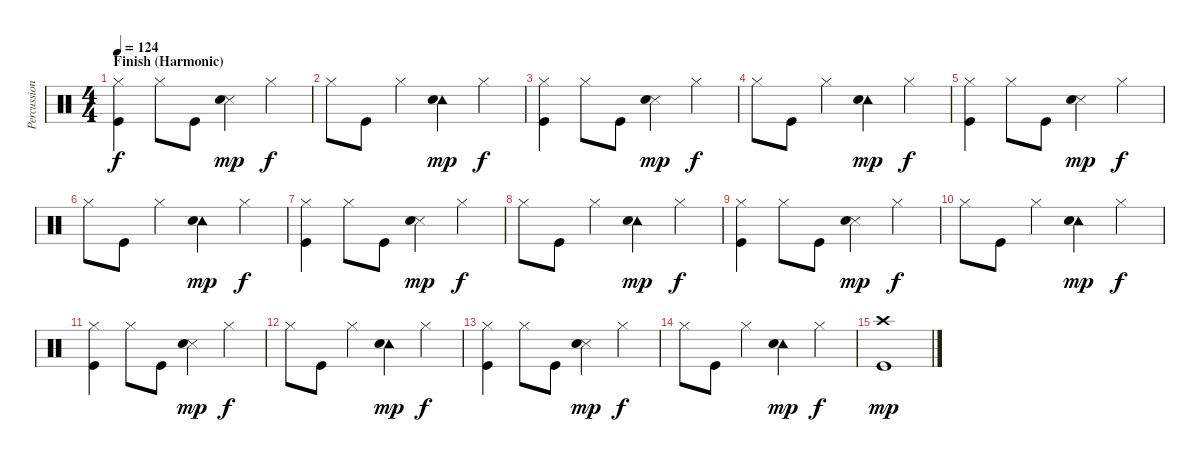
\track ("Percussion" "Percussion") {instrument percussion}
\staff {score}
\articulation defaults
\ts (4 4)
\section ("" "Finish (Harmonic)")
\tempo 124
\clef neutral
\ks c
("Hi-Hat (closed)" "Kick (hit)").4{dy f} "Hi-Hat (closed)".8 "Kick (hit)".8 ("Snare (side stick) 3" "Snare (hit) 2").4{dy mp} "Hi-Hat (closed)".4{dy f} |
"Hi-Hat (closed)".8 "Kick (hit)".8 "Hi-Hat (closed)".4 ("Tambourine (hit)" "Snare (hit) 2").4{dy mp} "Hi-Hat (closed)".4{dy f} |
("Hi-Hat (closed)" "Kick (hit)").4 "Hi-Hat (closed)".8 "Kick (hit)".8 ("Snare (side stick) 3" "Snare (hit) 2").4{dy mp} "Hi-Hat (closed)".4{dy f} |
"Hi-Hat (closed)".8 "Kick (hit)".8 "Hi-Hat (closed)".4 ("Tambourine (hit)" "Snare (hit) 2").4{dy mp} "Hi-Hat (closed)".4{dy f} |
("Hi-Hat (closed)" "Kick (hit)").4 "Hi-Hat (closed)".8 "Kick (hit)".8 ("Snare (side stick) 3" "Snare (hit) 2").4{dy mp} "Hi-Hat (closed)".4{dy f} |
"Hi-Hat (closed)".8 "Kick (hit)".8 "Hi-Hat (closed)".4 ("Tambourine (hit)" "Snare (hit) 2").4{dy mp} "Hi-Hat (closed)".4{dy f} |
("Hi-Hat (closed)" "Kick (hit)").4 "Hi-Hat (closed)".8 "Kick (hit)".8 ("Snare (side stick) 3" "Snare (hit) 2").4{dy mp} "Hi-Hat (closed)".4{dy f} |
"Hi-Hat (closed)".8 "Kick (hit)".8 "Hi-Hat (closed)".4 ("Tambourine (hit)" "Snare (hit) 2").4{dy mp} "Hi-Hat (closed)".4{dy f} |
("Hi-Hat (closed)" "Kick (hit)").4 "Hi-Hat (closed)".8 "Kick (hit)".8 ("Snare (side stick) 3" "Snare (hit) 2").4{dy mp} "Hi-Hat (closed)".4{dy f} |
"Hi-Hat (closed)".8 "Kick (hit)".8 "Hi-Hat (closed)".4 ("Tambourine (hit)" "Snare (hit) 2").4{dy mp} "Hi-Hat (closed)".4{dy f} |
("Hi-Hat (closed)" "Kick (hit)").4 "Hi-Hat (closed)".8 "Kick (hit)".8 ("Snare (side stick) 3" "Snare (hit) 2").4{dy mp} "Hi-Hat (closed)".4{dy f} |
"Hi-Hat (closed)".8 "Kick (hit)".8 "Hi-Hat (closed)".4 ("Tambourine (hit)" "Snare (hit) 2").4{dy mp} "Hi-Hat (closed)".4{dy f} |
("Hi-Hat (closed)" "Kick (hit)").4 "Hi-Hat (closed)".8 "Kick (hit)".8 ("Snare (side stick) 3" "Snare (hit) 2").4{dy mp} "Hi-Hat (closed)".4{dy f} |
"Hi-Hat (closed)".8 "Kick (hit)".8 "Hi-Hat (closed)".4 ("Tambourine (hit)" "Snare (hit) 2").4{dy mp} "Hi-Hat (closed)".4{dy f} |
("Crash high (hit)" "Kick (hit)").1{dy mp}
